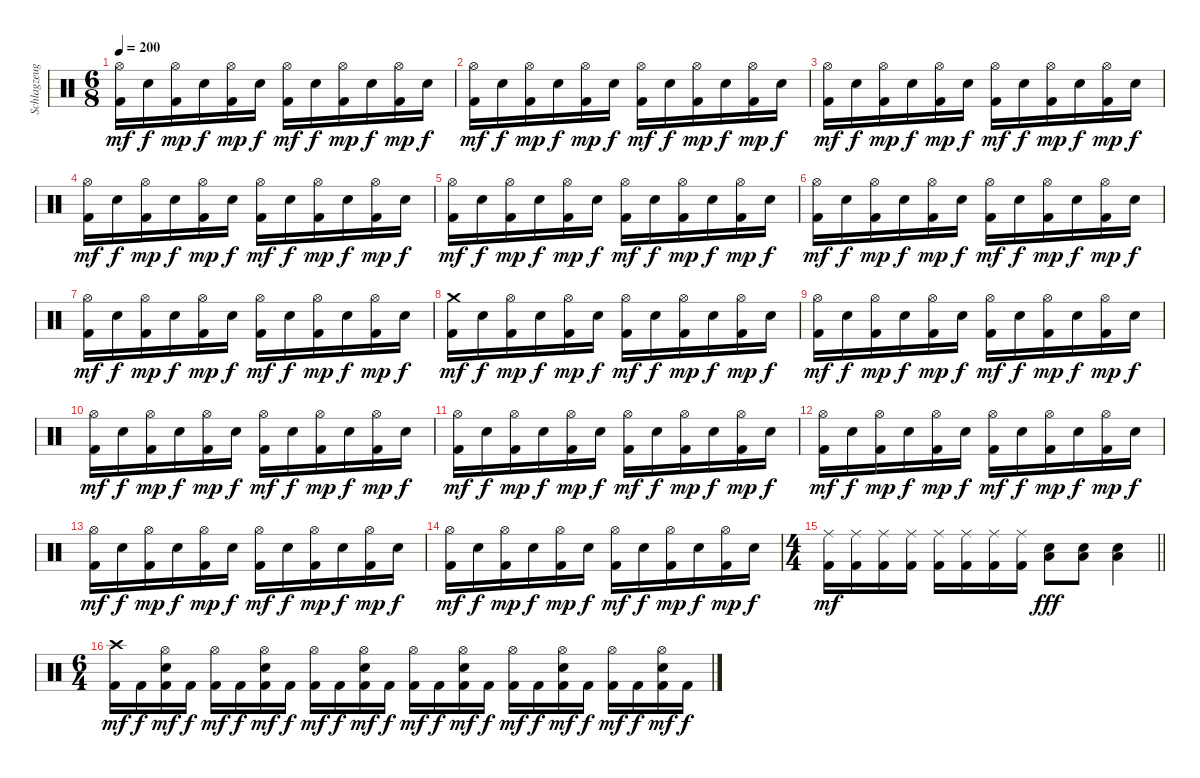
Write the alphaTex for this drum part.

\track ("Schlagzeug" "Schlagzeug") {instrument percussion}
\staff {score}
\articulation defaults
\ts (6 8)
\tempo 200
\clef neutral
\ks c
("Hi-Hat (open)" "Kick (hit) 2").16{dy mf} "Electric Snare (hit)".16{dy f} ("Hi-Hat (open)" "Kick (hit) 2").16{dy mp} "Electric Snare (hit)".16{dy f} ("Hi-Hat (open)" "Kick (hit) 2").16{dy mp} "Electric Snare (hit)".16{dy f} ("Hi-Hat (open)" "Kick (hit) 2").16{dy mf} "Electric Snare (hit)".16{dy f} ("Hi-Hat (open)" "Kick (hit) 2").16{dy mp} "Electric Snare (hit)".16{dy f} ("Hi-Hat (open)" "Kick (hit) 2").16{dy mp} "Electric Snare (hit)".16{dy f} |
("Hi-Hat (open)" "Kick (hit) 2").16{dy mf} "Electric Snare (hit)".16{dy f} ("Hi-Hat (open)" "Kick (hit) 2").16{dy mp} "Electric Snare (hit)".16{dy f} ("Hi-Hat (open)" "Kick (hit) 2").16{dy mp} "Electric Snare (hit)".16{dy f} ("Hi-Hat (open)" "Kick (hit) 2").16{dy mf} "Electric Snare (hit)".16{dy f} ("Hi-Hat (open)" "Kick (hit) 2").16{dy mp} "Electric Snare (hit)".16{dy f} ("Hi-Hat (open)" "Kick (hit) 2").16{dy mp} "Electric Snare (hit)".16{dy f} |
("Hi-Hat (open)" "Kick (hit) 2").16{dy mf} "Electric Snare (hit)".16{dy f} ("Hi-Hat (open)" "Kick (hit) 2").16{dy mp} "Electric Snare (hit)".16{dy f} ("Hi-Hat (open)" "Kick (hit) 2").16{dy mp} "Electric Snare (hit)".16{dy f} ("Hi-Hat (open)" "Kick (hit) 2").16{dy mf} "Electric Snare (hit)".16{dy f} ("Hi-Hat (open)" "Kick (hit) 2").16{dy mp} "Electric Snare (hit)".16{dy f} ("Hi-Hat (open)" "Kick (hit) 2").16{dy mp} "Electric Snare (hit)".16{dy f} |
("Hi-Hat (open)" "Kick (hit) 2").16{dy mf} "Electric Snare (hit)".16{dy f} ("Hi-Hat (open)" "Kick (hit) 2").16{dy mp} "Electric Snare (hit)".16{dy f} ("Hi-Hat (open)" "Kick (hit) 2").16{dy mp} "Electric Snare (hit)".16{dy f} ("Hi-Hat (open)" "Kick (hit) 2").16{dy mf} "Electric Snare (hit)".16{dy f} ("Hi-Hat (open)" "Kick (hit) 2").16{dy mp} "Electric Snare (hit)".16{dy f} ("Hi-Hat (open)" "Kick (hit) 2").16{dy mp} "Electric Snare (hit)".16{dy f} |
("Hi-Hat (open)" "Kick (hit) 2").16{dy mf} "Electric Snare (hit)".16{dy f} ("Hi-Hat (open)" "Kick (hit) 2").16{dy mp} "Electric Snare (hit)".16{dy f} ("Hi-Hat (open)" "Kick (hit) 2").16{dy mp} "Electric Snare (hit)".16{dy f} ("Hi-Hat (open)" "Kick (hit) 2").16{dy mf} "Electric Snare (hit)".16{dy f} ("Hi-Hat (open)" "Kick (hit) 2").16{dy mp} "Electric Snare (hit)".16{dy f} ("Hi-Hat (open)" "Kick (hit) 2").16{dy mp} "Electric Snare (hit)".16{dy f} |
("Hi-Hat (open)" "Kick (hit) 2").16{dy mf} "Electric Snare (hit)".16{dy f} ("Hi-Hat (open)" "Kick (hit) 2").16{dy mp} "Electric Snare (hit)".16{dy f} ("Hi-Hat (open)" "Kick (hit) 2").16{dy mp} "Electric Snare (hit)".16{dy f} ("Hi-Hat (open)" "Kick (hit) 2").16{dy mf} "Electric Snare (hit)".16{dy f} ("Hi-Hat (open)" "Kick (hit) 2").16{dy mp} "Electric Snare (hit)".16{dy f} ("Hi-Hat (open)" "Kick (hit) 2").16{dy mp} "Electric Snare (hit)".16{dy f} |
("Hi-Hat (open)" "Kick (hit) 2").16{dy mf} "Electric Snare (hit)".16{dy f} ("Hi-Hat (open)" "Kick (hit) 2").16{dy mp} "Electric Snare (hit)".16{dy f} ("Hi-Hat (open)" "Kick (hit) 2").16{dy mp} "Electric Snare (hit)".16{dy f} ("Hi-Hat (open)" "Kick (hit) 2").16{dy mf} "Electric Snare (hit)".16{dy f} ("Hi-Hat (open)" "Kick (hit) 2").16{dy mp} "Electric Snare (hit)".16{dy f} ("Hi-Hat (open)" "Kick (hit) 2").16{dy mp} "Electric Snare (hit)".16{dy f} |
("Crash medium (hit)" "Kick (hit) 2").16{dy mf} "Electric Snare (hit)".16{dy f} ("Hi-Hat (open)" "Kick (hit) 2").16{dy mp} "Electric Snare (hit)".16{dy f} ("Hi-Hat (open)" "Kick (hit) 2").16{dy mp} "Electric Snare (hit)".16{dy f} ("Hi-Hat (open)" "Kick (hit) 2").16{dy mf} "Electric Snare (hit)".16{dy f} ("Hi-Hat (open)" "Kick (hit) 2").16{dy mp} "Electric Snare (hit)".16{dy f} ("Hi-Hat (open)" "Kick (hit) 2").16{dy mp} "Electric Snare (hit)".16{dy f} |
("Hi-Hat (open)" "Kick (hit) 2").16{dy mf} "Electric Snare (hit)".16{dy f} ("Hi-Hat (open)" "Kick (hit) 2").16{dy mp} "Electric Snare (hit)".16{dy f} ("Hi-Hat (open)" "Kick (hit) 2").16{dy mp} "Electric Snare (hit)".16{dy f} ("Hi-Hat (open)" "Kick (hit) 2").16{dy mf} "Electric Snare (hit)".16{dy f} ("Hi-Hat (open)" "Kick (hit) 2").16{dy mp} "Electric Snare (hit)".16{dy f} ("Hi-Hat (open)" "Kick (hit) 2").16{dy mp} "Electric Snare (hit)".16{dy f} |
("Hi-Hat (open)" "Kick (hit) 2").16{dy mf} "Electric Snare (hit)".16{dy f} ("Hi-Hat (open)" "Kick (hit) 2").16{dy mp} "Electric Snare (hit)".16{dy f} ("Hi-Hat (open)" "Kick (hit) 2").16{dy mp} "Electric Snare (hit)".16{dy f} ("Hi-Hat (open)" "Kick (hit) 2").16{dy mf} "Electric Snare (hit)".16{dy f} ("Hi-Hat (open)" "Kick (hit) 2").16{dy mp} "Electric Snare (hit)".16{dy f} ("Hi-Hat (open)" "Kick (hit) 2").16{dy mp} "Electric Snare (hit)".16{dy f} |
("Hi-Hat (open)" "Kick (hit) 2").16{dy mf} "Electric Snare (hit)".16{dy f} ("Hi-Hat (open)" "Kick (hit) 2").16{dy mp} "Electric Snare (hit)".16{dy f} ("Hi-Hat (open)" "Kick (hit) 2").16{dy mp} "Electric Snare (hit)".16{dy f} ("Hi-Hat (open)" "Kick (hit) 2").16{dy mf} "Electric Snare (hit)".16{dy f} ("Hi-Hat (open)" "Kick (hit) 2").16{dy mp} "Electric Snare (hit)".16{dy f} ("Hi-Hat (open)" "Kick (hit) 2").16{dy mp} "Electric Snare (hit)".16{dy f} |
("Hi-Hat (open)" "Kick (hit) 2").16{dy mf} "Electric Snare (hit)".16{dy f} ("Hi-Hat (open)" "Kick (hit) 2").16{dy mp} "Electric Snare (hit)".16{dy f} ("Hi-Hat (open)" "Kick (hit) 2").16{dy mp} "Electric Snare (hit)".16{dy f} ("Hi-Hat (open)" "Kick (hit) 2").16{dy mf} "Electric Snare (hit)".16{dy f} ("Hi-Hat (open)" "Kick (hit) 2").16{dy mp} "Electric Snare (hit)".16{dy f} ("Hi-Hat (open)" "Kick (hit) 2").16{dy mp} "Electric Snare (hit)".16{dy f} |
("Hi-Hat (open)" "Kick (hit) 2").16{dy mf} "Electric Snare (hit)".16{dy f} ("Hi-Hat (open)" "Kick (hit) 2").16{dy mp} "Electric Snare (hit)".16{dy f} ("Hi-Hat (open)" "Kick (hit) 2").16{dy mp} "Electric Snare (hit)".16{dy f} ("Hi-Hat (open)" "Kick (hit) 2").16{dy mf} "Electric Snare (hit)".16{dy f} ("Hi-Hat (open)" "Kick (hit) 2").16{dy mp} "Electric Snare (hit)".16{dy f} ("Hi-Hat (open)" "Kick (hit) 2").16{dy mp} "Electric Snare (hit)".16{dy f} |
("Hi-Hat (open)" "Kick (hit) 2").16{dy mf} "Electric Snare (hit)".16{dy f} ("Hi-Hat (open)" "Kick (hit) 2").16{dy mp} "Electric Snare (hit)".16{dy f} ("Hi-Hat (open)" "Kick (hit) 2").16{dy mp} "Electric Snare (hit)".16{dy f} ("Hi-Hat (open)" "Kick (hit) 2").16{dy mf} "Electric Snare (hit)".16{dy f} ("Hi-Hat (open)" "Kick (hit) 2").16{dy mp} "Electric Snare (hit)".16{dy f} ("Hi-Hat (open)" "Kick (hit) 2").16{dy mp} "Electric Snare (hit)".16{dy f} |
\ts (4 4)
\barLineRight lightlight
("Ride (middle)" "Kick (hit) 2").16{dy mf} ("Ride (middle)" "Kick (hit) 2").16 ("Ride (middle)" "Kick (hit) 2").16 ("Ride (middle)" "Kick (hit) 2").16 ("Ride (middle)" "Kick (hit) 2").16 ("Ride (middle)" "Kick (hit) 2").16 ("Ride (middle)" "Kick (hit) 2").16 ("Ride (middle)" "Kick (hit) 2").16 ("Electric Snare (hit)" "Low Tom (hit)").8{bd 480 dy fff} ("Electric Snare (hit)" "Low Tom (hit)").8{bd 480} ("Electric Snare (hit)" "Low Tom (hit)").4{bd 480} |
\ts (6 4)
\section ("" "")
("Crash high (hit)" "Kick (hit) 2").16{dy mf} "Kick (hit) 2".16{dy f} ("Hi-Hat (open)" "Electric Snare (hit)" "Kick (hit) 2").16{dy mf} "Kick (hit) 2".16{dy f} ("Hi-Hat (open)" "Kick (hit) 2").16{dy mf} "Kick (hit) 2".16{dy f} ("Hi-Hat (open)" "Electric Snare (hit)" "Kick (hit) 2").16{dy mf} "Kick (hit) 2".16{dy f} ("Hi-Hat (open)" "Kick (hit) 2").16{dy mf} "Kick (hit) 2".16{dy f} ("Hi-Hat (open)" "Electric Snare (hit)" "Kick (hit) 2").16{dy mf} "Kick (hit) 2".16{dy f} ("Hi-Hat (open)" "Kick (hit) 2").16{dy mf} "Kick (hit) 2".16{dy f} ("Hi-Hat (open)" "Electric Snare (hit)" "Kick (hit) 2").16{dy mf} "Kick (hit) 2".16{dy f} ("Hi-Hat (open)" "Kick (hit) 2").16{dy mf} "Kick (hit) 2".16{dy f} ("Hi-Hat (open)" "Electric Snare (hit)" "Kick (hit) 2").16{dy mf} "Kick (hit) 2".16{dy f} ("Hi-Hat (open)" "Kick (hit) 2").16{dy mf} "Kick (hit) 2".16{dy f} ("Hi-Hat (open)" "Electric Snare (hit)" "Kick (hit) 2").16{dy mf} "Kick (hit) 2".16{dy f}
